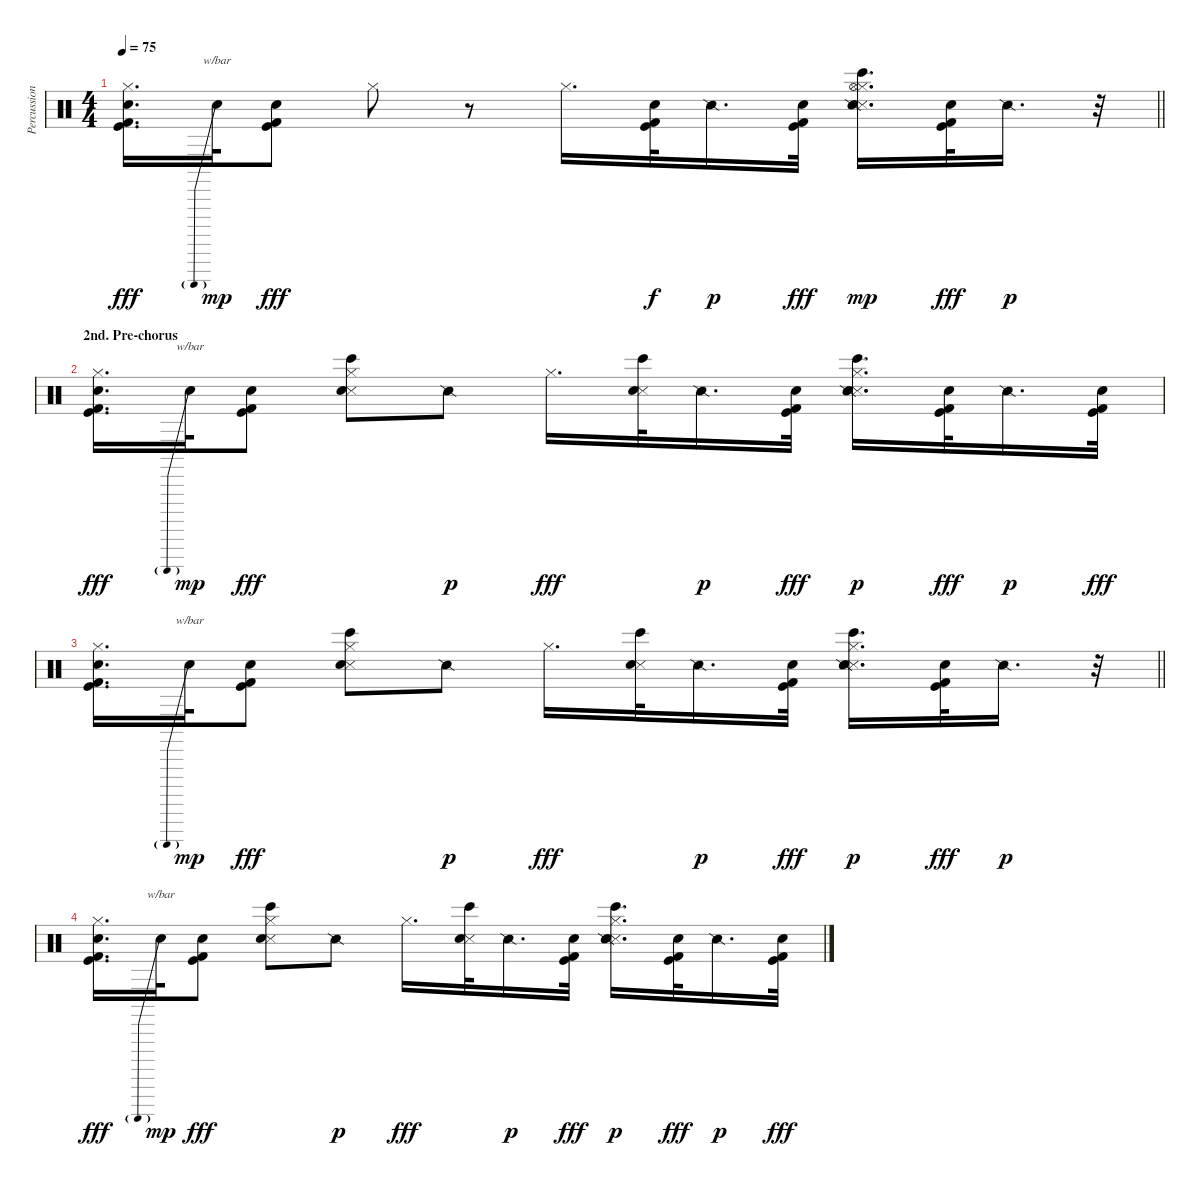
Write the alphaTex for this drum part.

\track ("Percussion" "Percussion") {instrument percussion}
\staff {score}
\articulation defaults
\ts (4 4)
\tempo 75
\clef neutral
\barLineRight lightlight
\ks c
("Hi-Hat (closed)" "Snare (hit) 2" "Kick (hit)" "Kick (hit) 2").16{d dy fff} "Hand Clap (hit)".32{tbe (predive default 0 24 60 24) dy mp} ("Snare (hit) 2" "Kick (hit)" "Kick (hit) 2").8{dy fff} "Hi-Hat (closed)".8 r.8 "Hi-Hat (closed)".16{d} ("Snare (hit) 2" "Kick (hit)" "Kick (hit) 2").32{dy f} "Snare (side stick) 2".16{d dy p} ("Snare (hit) 2" "Kick (hit)" "Kick (hit) 2").32{dy fff} ("Hi-Hat (closed)" "Snare (side stick) 3" "Snare (hit) 2" "Bongo High (hit)" "Snare (side stick) 2" "Hi-Hat (open)").16{d dy mp} ("Snare (hit) 2" "Kick (hit)" "Kick (hit) 2").32{dy fff} "Snare (side stick) 2".16{d dy p} r.32 |
\section ("" "2nd. Pre-chorus")
("Hi-Hat (closed)" "Snare (hit) 2" "Kick (hit)" "Kick (hit) 2").16{d dy fff} "Hand Clap (hit)".32{tbe (predive default 0 24 60 24) dy mp} ("Snare (hit) 2" "Kick (hit)" "Kick (hit) 2").8{dy fff} ("Hi-Hat (closed)" "Snare (side stick) 3" "Snare (hit) 2" "Bongo High (hit)").8 "Snare (side stick) 2".8{dy p} "Hi-Hat (closed)".16{d dy fff} ("Snare (side stick) 3" "Snare (hit) 2" "Bongo High (hit)").32 "Snare (side stick) 2".16{d dy p} ("Snare (hit) 2" "Kick (hit)" "Kick (hit) 2").32{dy fff} ("Hi-Hat (closed)" "Snare (side stick) 3" "Snare (hit) 2" "Bongo High (hit)" "Snare (side stick) 2").16{d dy p} ("Snare (hit) 2" "Kick (hit)" "Kick (hit) 2").32{dy fff} "Snare (side stick) 2".16{d dy p} ("Snare (hit) 2" "Kick (hit)" "Kick (hit) 2").32{dy fff} |
\barLineRight lightlight
("Hi-Hat (closed)" "Snare (hit) 2" "Kick (hit)" "Kick (hit) 2").16{d} "Hand Clap (hit)".32{tbe (predive default 0 24 60 24) dy mp} ("Snare (hit) 2" "Kick (hit)" "Kick (hit) 2").8{dy fff} ("Hi-Hat (closed)" "Snare (side stick) 3" "Snare (hit) 2" "Bongo High (hit)").8 "Snare (side stick) 2".8{dy p} "Hi-Hat (closed)".16{d dy fff} ("Snare (side stick) 3" "Snare (hit) 2" "Bongo High (hit)").32 "Snare (side stick) 2".16{d dy p} ("Snare (hit) 2" "Kick (hit)" "Kick (hit) 2").32{dy fff} ("Hi-Hat (closed)" "Snare (side stick) 3" "Snare (hit) 2" "Bongo High (hit)" "Snare (side stick) 2").16{d dy p} ("Snare (hit) 2" "Kick (hit)" "Kick (hit) 2").32{dy fff} "Snare (side stick) 2".16{d dy p} r.32 |
("Hi-Hat (closed)" "Snare (hit) 2" "Kick (hit)" "Kick (hit) 2").16{d dy fff} "Hand Clap (hit)".32{tbe (predive default 0 24 60 24) dy mp} ("Snare (hit) 2" "Kick (hit)" "Kick (hit) 2").8{dy fff} ("Hi-Hat (closed)" "Snare (side stick) 3" "Snare (hit) 2" "Bongo High (hit)").8 "Snare (side stick) 2".8{dy p} "Hi-Hat (closed)".16{d dy fff} ("Snare (side stick) 3" "Snare (hit) 2" "Bongo High (hit)").32 "Snare (side stick) 2".16{d dy p} ("Snare (hit) 2" "Kick (hit)" "Kick (hit) 2").32{dy fff} ("Hi-Hat (closed)" "Snare (side stick) 3" "Snare (hit) 2" "Bongo High (hit)" "Snare (side stick) 2").16{d dy p} ("Snare (hit) 2" "Kick (hit)" "Kick (hit) 2").32{dy fff} "Snare (side stick) 2".16{d dy p} ("Snare (hit) 2" "Kick (hit)" "Kick (hit) 2").32{dy fff}
